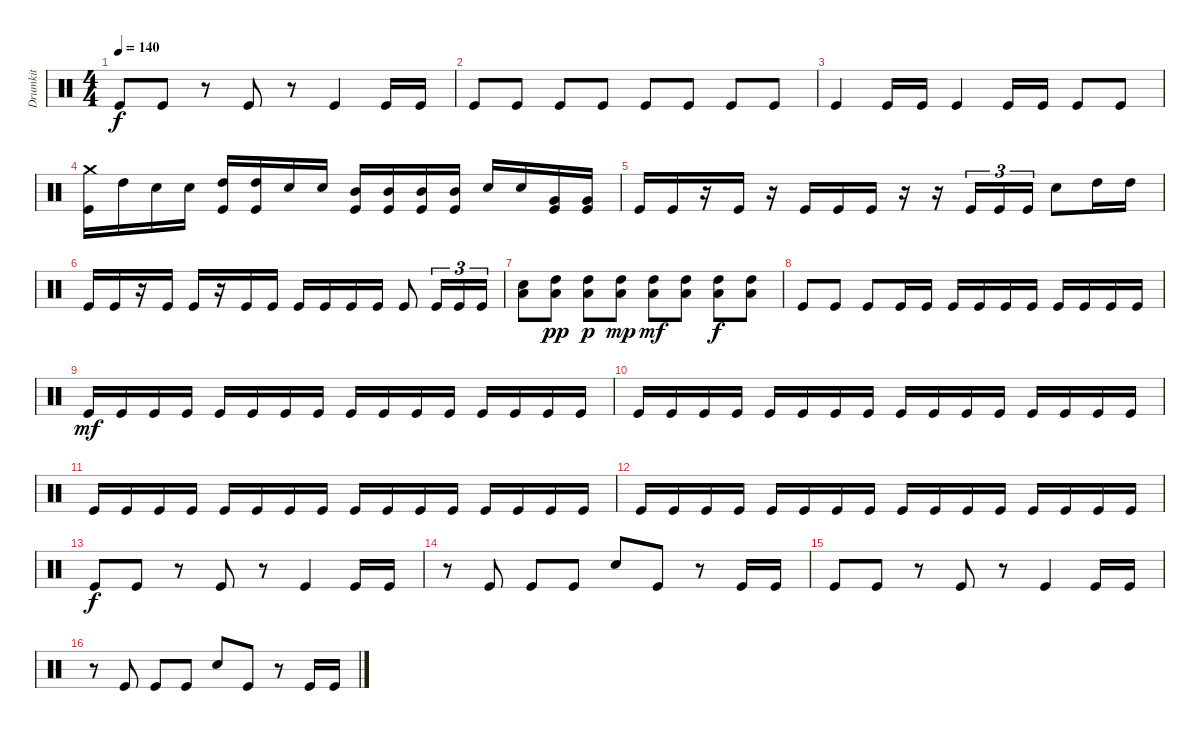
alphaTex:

\track ("Drumkit" "Drumkit") {instrument percussion}
\staff {score}
\articulation defaults
\ts (4 4)
\tempo 140
\clef neutral
\ks c "Kick (hit)".8{dy f} "Kick (hit)".8
r.8 "Kick (hit)".8 r.8 "Kick (hit)".4 "Kick (hit)".16 "Kick (hit)".16 |
"Kick (hit)".8 "Kick (hit)".8 "Kick (hit)".8 "Kick (hit)".8 "Kick (hit)".8 "Kick (hit)".8 "Kick (hit)".8 "Kick (hit)".8 |
"Kick (hit)".4 "Kick (hit)".16 "Kick (hit)".16 "Kick (hit)".4 "Kick (hit)".16 "Kick (hit)".16 "Kick (hit)".8 "Kick (hit)".8 |
("Crash medium (hit)" "Kick (hit)").16 "High Tom (hit)".16 "Snare (hit) 2".16 "Snare (hit) 2".16 ("High Tom (hit)" "Kick (hit)").16 ("High Tom (hit)" "Kick (hit)").16 "Snare (hit) 2".16 "Snare (hit) 2".16 ("Mid Tom (hit)" "Kick (hit)").16 ("Mid Tom (hit)" "Kick (hit)").16 ("Mid Tom (hit)" "Kick (hit)").16 ("Mid Tom (hit)" "Kick (hit)").16 "Snare (hit) 2".16 "Snare (hit) 2".16 ("Very Low Tom (hit)" "Kick (hit)").16 ("Very Low Tom (hit)" "Kick (hit)").16 |
"Kick (hit)".16 "Kick (hit)".16 r.16 "Kick (hit)".16 r.16 "Kick (hit)".16 "Kick (hit)".16 "Kick (hit)".16 r.16 r.16 "Kick (hit)".16{tu (3 2)} "Kick (hit)".16{tu (3 2)} "Kick (hit)".16{tu (3 2)} "Snare (hit) 2".8 "High Tom (hit)".16 "High Tom (hit)".16 |
"Kick (hit)".16 "Kick (hit)".16 r.16 "Kick (hit)".16 "Kick (hit)".16 r.16 "Kick (hit)".16 "Kick (hit)".16 "Kick (hit)".16 "Kick (hit)".16 "Kick (hit)".16 "Kick (hit)".16 "Kick (hit)".8 "Kick (hit)".16{tu (3 2)} "Kick (hit)".16{tu (3 2)} "Kick (hit)".16{tu (3 2)} |
("Low Floor Tom (hit)" "Snare (hit) 2").8 ("High Tom (hit)" "Low Floor Tom (hit)").8{dy pp} ("High Tom (hit)" "Low Floor Tom (hit)").8{dy p} ("High Tom (hit)" "Low Floor Tom (hit)").8{dy mp} ("High Tom (hit)" "Low Floor Tom (hit)").8{dy mf} ("High Tom (hit)" "Low Floor Tom (hit)").8 ("High Tom (hit)" "Low Floor Tom (hit)").8{dy f} ("High Tom (hit)" "Low Floor Tom (hit)").8 |
"Kick (hit)".8 "Kick (hit)".8 "Kick (hit)".8 "Kick (hit)".16 "Kick (hit)".16 "Kick (hit)".16 "Kick (hit)".16 "Kick (hit)".16 "Kick (hit)".16 "Kick (hit)".16 "Kick (hit)".16 "Kick (hit)".16 "Kick (hit)".16 |
"Kick (hit)".16{dy mf} "Kick (hit)".16 "Kick (hit)".16 "Kick (hit)".16 "Kick (hit)".16 "Kick (hit)".16 "Kick (hit)".16 "Kick (hit)".16 "Kick (hit)".16 "Kick (hit)".16 "Kick (hit)".16 "Kick (hit)".16 "Kick (hit)".16 "Kick (hit)".16 "Kick (hit)".16 "Kick (hit)".16 |
"Kick (hit)".16 "Kick (hit)".16 "Kick (hit)".16 "Kick (hit)".16 "Kick (hit)".16 "Kick (hit)".16 "Kick (hit)".16 "Kick (hit)".16 "Kick (hit)".16 "Kick (hit)".16 "Kick (hit)".16 "Kick (hit)".16 "Kick (hit)".16 "Kick (hit)".16 "Kick (hit)".16 "Kick (hit)".16 |
"Kick (hit)".16 "Kick (hit)".16 "Kick (hit)".16 "Kick (hit)".16 "Kick (hit)".16 "Kick (hit)".16 "Kick (hit)".16 "Kick (hit)".16 "Kick (hit)".16 "Kick (hit)".16 "Kick (hit)".16 "Kick (hit)".16 "Kick (hit)".16 "Kick (hit)".16 "Kick (hit)".16 "Kick (hit)".16 |
"Kick (hit)".16 "Kick (hit)".16 "Kick (hit)".16 "Kick (hit)".16 "Kick (hit)".16 "Kick (hit)".16 "Kick (hit)".16 "Kick (hit)".16 "Kick (hit)".16 "Kick (hit)".16 "Kick (hit)".16 "Kick (hit)".16 "Kick (hit)".16 "Kick (hit)".16 "Kick (hit)".16 "Kick (hit)".16 |
"Kick (hit)".8{dy f} "Kick (hit)".8 r.8 "Kick (hit)".8 r.8 "Kick (hit)".4 "Kick (hit)".16 "Kick (hit)".16 |
r.8 "Kick (hit)".8 "Kick (hit)".8 "Kick (hit)".8 "Snare (hit) 2".8 "Kick (hit)".8 r.8 "Kick (hit)".16 "Kick (hit)".16 |
"Kick (hit)".8 "Kick (hit)".8 r.8 "Kick (hit)".8 r.8 "Kick (hit)".4 "Kick (hit)".16 "Kick (hit)".16 |
r.8 "Kick (hit)".8 "Kick (hit)".8 "Kick (hit)".8 "Snare (hit) 2".8 "Kick (hit)".8 r.8 "Kick (hit)".16 "Kick (hit)".16
